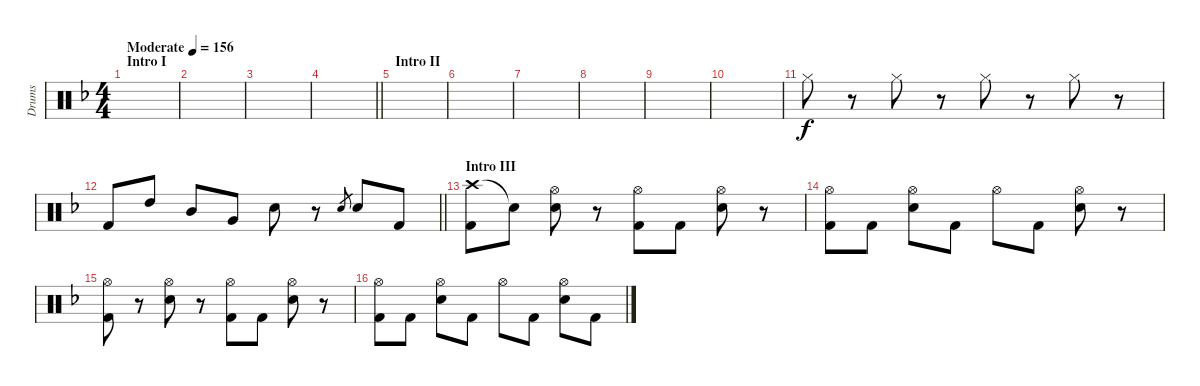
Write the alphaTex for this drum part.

\track ("Drums" "Drums") {instrument percussion}
\staff {score}
\articulation defaults
\ts (4 4)
\section ("" "Intro I")
\tempo (156 "Moderate")
\clef neutral
\ks f
|
|
|
\barLineRight lightlight
|
\section ("" "Intro II")
|
|
|
|
|
|
"Hi-Hat (closed)".8 r.8 "Hi-Hat (closed)".8 r.8 "Hi-Hat (closed)".8 r.8 "Hi-Hat (closed)".8 r.8 |
\barLineRight lightlight "Kick (hit) 2".8 "High Tom (hit)".8 "Mid Tom (hit)".8 "Very Low Tom (hit)".8 "Snare (hit) 2".8
r.8 "Snare (hit) 2"{sl}.8{gr} "Snare (hit) 2".8 "Kick (hit) 2".8 |
\section ("" "Intro III")
("Crash high (hit)" "Kick (hit) 2").8 "Snare (hit)"{t}.8 ("Hi-Hat (open)" "Snare (hit) 2").8 r.8 ("Hi-Hat (open)" "Kick (hit) 2").8 "Kick (hit) 2".8 ("Hi-Hat (open)" "Snare (hit) 2").8 r.8 |
("Hi-Hat (open)" "Kick (hit) 2").8 "Kick (hit) 2".8 ("Hi-Hat (open)" "Snare (hit) 2").8 "Kick (hit) 2".8 "Hi-Hat (open)".8 "Kick (hit) 2".8 ("Hi-Hat (open)" "Snare (hit) 2").8 r.8 |
("Hi-Hat (open)" "Kick (hit) 2").8 r.8 ("Hi-Hat (open)" "Snare (hit) 2").8 r.8 ("Hi-Hat (open)" "Kick (hit) 2").8 "Kick (hit) 2".8 ("Hi-Hat (open)" "Snare (hit) 2").8 r.8 |
("Hi-Hat (open)" "Kick (hit) 2").8 "Kick (hit) 2".8 ("Hi-Hat (open)" "Snare (hit) 2").8 "Kick (hit) 2".8 "Hi-Hat (open)".8 "Kick (hit) 2".8 ("Hi-Hat (open)" "Snare (hit) 2").8 "Kick (hit) 2".8
